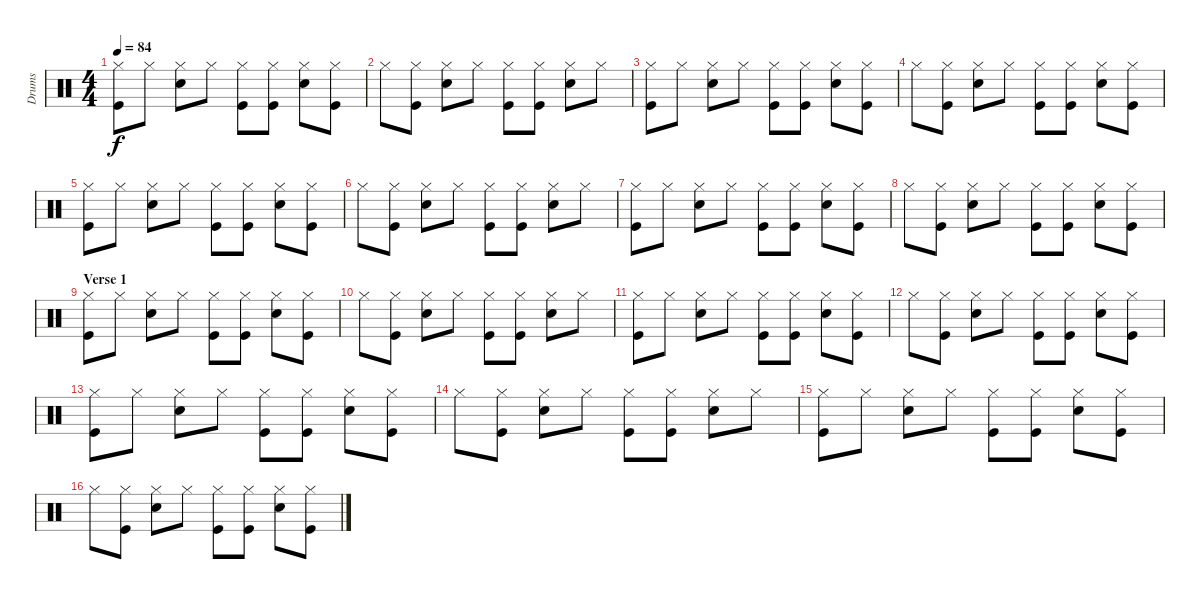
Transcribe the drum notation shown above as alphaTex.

\track ("Drums" "Drums") {instrument percussion}
\staff {score}
\articulation defaults
\ts (4 4)
\tempo 84
\clef neutral
\ks c
("Hi-Hat (closed)" "Kick (hit)").8{dy f} "Hi-Hat (closed)".8 ("Hi-Hat (closed)" "Snare (hit) 2").8 "Hi-Hat (closed)".8 ("Hi-Hat (closed)" "Kick (hit)").8 ("Hi-Hat (closed)" "Kick (hit)").8 ("Hi-Hat (closed)" "Snare (hit) 2").8 ("Hi-Hat (closed)" "Kick (hit)").8 |
"Hi-Hat (closed)".8 ("Hi-Hat (closed)" "Kick (hit)").8 ("Hi-Hat (closed)" "Snare (hit) 2").8 "Hi-Hat (closed)".8 ("Hi-Hat (closed)" "Kick (hit)").8 ("Hi-Hat (closed)" "Kick (hit)").8 ("Hi-Hat (closed)" "Snare (hit) 2").8 "Hi-Hat (closed)".8 |
("Hi-Hat (closed)" "Kick (hit)").8 "Hi-Hat (closed)".8 ("Hi-Hat (closed)" "Snare (hit) 2").8 "Hi-Hat (closed)".8 ("Hi-Hat (closed)" "Kick (hit)").8 ("Hi-Hat (closed)" "Kick (hit)").8 ("Hi-Hat (closed)" "Snare (hit) 2").8 ("Hi-Hat (closed)" "Kick (hit)").8 |
"Hi-Hat (closed)".8 ("Hi-Hat (closed)" "Kick (hit)").8 ("Hi-Hat (closed)" "Snare (hit) 2").8 "Hi-Hat (closed)".8 ("Hi-Hat (closed)" "Kick (hit)").8 ("Hi-Hat (closed)" "Kick (hit)").8 ("Hi-Hat (closed)" "Snare (hit) 2").8 ("Hi-Hat (closed)" "Kick (hit)").8 |
("Hi-Hat (closed)" "Kick (hit)").8 "Hi-Hat (closed)".8 ("Hi-Hat (closed)" "Snare (hit) 2").8 "Hi-Hat (closed)".8 ("Hi-Hat (closed)" "Kick (hit)").8 ("Hi-Hat (closed)" "Kick (hit)").8 ("Hi-Hat (closed)" "Snare (hit) 2").8 ("Hi-Hat (closed)" "Kick (hit)").8 |
"Hi-Hat (closed)".8 ("Hi-Hat (closed)" "Kick (hit)").8 ("Hi-Hat (closed)" "Snare (hit) 2").8 "Hi-Hat (closed)".8 ("Hi-Hat (closed)" "Kick (hit)").8 ("Hi-Hat (closed)" "Kick (hit)").8 ("Hi-Hat (closed)" "Snare (hit) 2").8 "Hi-Hat (closed)".8 |
("Hi-Hat (closed)" "Kick (hit)").8 "Hi-Hat (closed)".8 ("Hi-Hat (closed)" "Snare (hit) 2").8 "Hi-Hat (closed)".8 ("Hi-Hat (closed)" "Kick (hit)").8 ("Hi-Hat (closed)" "Kick (hit)").8 ("Hi-Hat (closed)" "Snare (hit) 2").8 ("Hi-Hat (closed)" "Kick (hit)").8 |
"Hi-Hat (closed)".8 ("Hi-Hat (closed)" "Kick (hit)").8 ("Hi-Hat (closed)" "Snare (hit) 2").8 "Hi-Hat (closed)".8 ("Hi-Hat (closed)" "Kick (hit)").8 ("Hi-Hat (closed)" "Kick (hit)").8 ("Hi-Hat (closed)" "Snare (hit) 2").8 ("Hi-Hat (closed)" "Kick (hit)").8 |
\section ("" "Verse 1")
("Hi-Hat (closed)" "Kick (hit)").8 "Hi-Hat (closed)".8 ("Hi-Hat (closed)" "Snare (hit) 2").8 "Hi-Hat (closed)".8 ("Hi-Hat (closed)" "Kick (hit)").8 ("Hi-Hat (closed)" "Kick (hit)").8 ("Hi-Hat (closed)" "Snare (hit) 2").8 ("Hi-Hat (closed)" "Kick (hit)").8 |
"Hi-Hat (closed)".8 ("Hi-Hat (closed)" "Kick (hit)").8 ("Hi-Hat (closed)" "Snare (hit) 2").8 "Hi-Hat (closed)".8 ("Hi-Hat (closed)" "Kick (hit)").8 ("Hi-Hat (closed)" "Kick (hit)").8 ("Hi-Hat (closed)" "Snare (hit) 2").8 "Hi-Hat (closed)".8 |
("Hi-Hat (closed)" "Kick (hit)").8 "Hi-Hat (closed)".8 ("Hi-Hat (closed)" "Snare (hit) 2").8 "Hi-Hat (closed)".8 ("Hi-Hat (closed)" "Kick (hit)").8 ("Hi-Hat (closed)" "Kick (hit)").8 ("Hi-Hat (closed)" "Snare (hit) 2").8 ("Hi-Hat (closed)" "Kick (hit)").8 |
"Hi-Hat (closed)".8 ("Hi-Hat (closed)" "Kick (hit)").8 ("Hi-Hat (closed)" "Snare (hit) 2").8 "Hi-Hat (closed)".8 ("Hi-Hat (closed)" "Kick (hit)").8 ("Hi-Hat (closed)" "Kick (hit)").8 ("Hi-Hat (closed)" "Snare (hit) 2").8 ("Hi-Hat (closed)" "Kick (hit)").8 |
("Hi-Hat (closed)" "Kick (hit)").8 "Hi-Hat (closed)".8 ("Hi-Hat (closed)" "Snare (hit) 2").8 "Hi-Hat (closed)".8 ("Hi-Hat (closed)" "Kick (hit)").8 ("Hi-Hat (closed)" "Kick (hit)").8 ("Hi-Hat (closed)" "Snare (hit) 2").8 ("Hi-Hat (closed)" "Kick (hit)").8 |
"Hi-Hat (closed)".8 ("Hi-Hat (closed)" "Kick (hit)").8 ("Hi-Hat (closed)" "Snare (hit) 2").8 "Hi-Hat (closed)".8 ("Hi-Hat (closed)" "Kick (hit)").8 ("Hi-Hat (closed)" "Kick (hit)").8 ("Hi-Hat (closed)" "Snare (hit) 2").8 "Hi-Hat (closed)".8 |
("Hi-Hat (closed)" "Kick (hit)").8 "Hi-Hat (closed)".8 ("Hi-Hat (closed)" "Snare (hit) 2").8 "Hi-Hat (closed)".8 ("Hi-Hat (closed)" "Kick (hit)").8 ("Hi-Hat (closed)" "Kick (hit)").8 ("Hi-Hat (closed)" "Snare (hit) 2").8 ("Hi-Hat (closed)" "Kick (hit)").8 |
"Hi-Hat (closed)".8 ("Hi-Hat (closed)" "Kick (hit)").8 ("Hi-Hat (closed)" "Snare (hit) 2").8 "Hi-Hat (closed)".8 ("Hi-Hat (closed)" "Kick (hit)").8 ("Hi-Hat (closed)" "Kick (hit)").8 ("Hi-Hat (closed)" "Snare (hit) 2").8 ("Hi-Hat (closed)" "Kick (hit)").8
